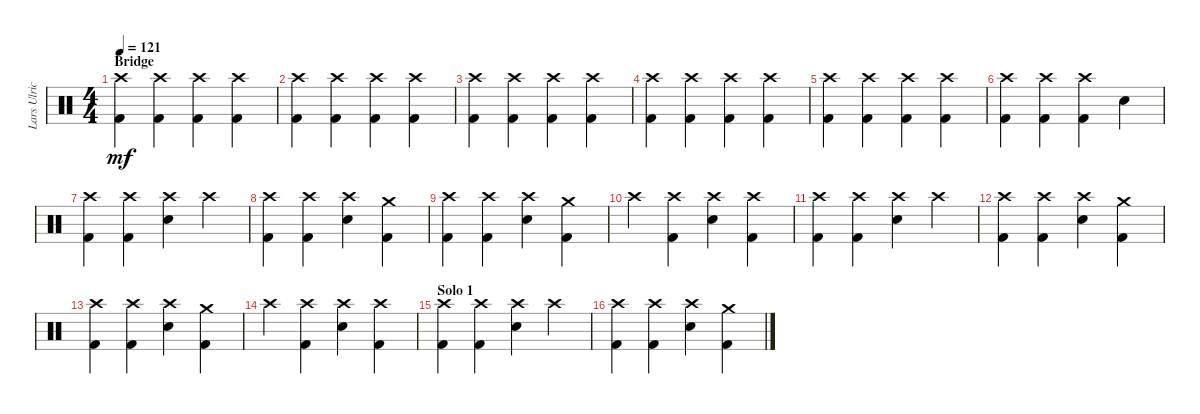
\track ("Lars Ulrich" "Lars Ulric") {instrument percussion}
\staff {score}
\articulation defaults
\ts (4 4)
\section ("" "Bridge")
\tempo 121
\clef neutral
\ks c
("Crash high (hit)" "Kick (hit) 2").4{dy mf} ("Crash high (hit)" "Kick (hit) 2").4 ("Crash high (hit)" "Kick (hit) 2").4 ("Crash high (hit)" "Kick (hit) 2").4 |
("Crash high (hit)" "Kick (hit) 2").4 ("Crash high (hit)" "Kick (hit) 2").4 ("Crash high (hit)" "Kick (hit) 2").4 ("Crash high (hit)" "Kick (hit) 2").4 |
("Crash high (hit)" "Kick (hit) 2").4 ("Crash high (hit)" "Kick (hit) 2").4 ("Crash high (hit)" "Kick (hit) 2").4 ("Crash high (hit)" "Kick (hit) 2").4 |
("Crash high (hit)" "Kick (hit) 2").4 ("Crash high (hit)" "Kick (hit) 2").4 ("Crash high (hit)" "Kick (hit) 2").4 ("Crash high (hit)" "Kick (hit) 2").4 |
("Crash high (hit)" "Kick (hit) 2").4 ("Crash high (hit)" "Kick (hit) 2").4 ("Crash high (hit)" "Kick (hit) 2").4 ("Crash high (hit)" "Kick (hit) 2").4 |
("Crash high (hit)" "Kick (hit) 2").4 ("Crash high (hit)" "Kick (hit) 2").4 ("Crash high (hit)" "Kick (hit) 2").4 "Snare (hit) 2".4 |
("Crash high (hit)" "Kick (hit) 2").4 ("Crash high (hit)" "Kick (hit) 2").4 ("Crash high (hit)" "Snare (hit) 2").4 "Crash high (hit)".4 |
("Crash high (hit)" "Kick (hit) 2").4 ("Crash high (hit)" "Kick (hit) 2").4 ("Crash high (hit)" "Snare (hit) 2").4 ("Kick (hit) 2" "Crash medium (hit)").4 |
("Crash high (hit)" "Kick (hit) 2").4 ("Crash high (hit)" "Kick (hit) 2").4 ("Crash high (hit)" "Snare (hit) 2").4 ("Kick (hit) 2" "Crash medium (hit)").4 |
"Crash high (hit)".4 ("Crash high (hit)" "Kick (hit) 2").4 ("Crash high (hit)" "Snare (hit) 2").4 ("Crash high (hit)" "Kick (hit) 2").4 |
("Crash high (hit)" "Kick (hit) 2").4 ("Crash high (hit)" "Kick (hit) 2").4 ("Crash high (hit)" "Snare (hit) 2").4 "Crash high (hit)".4 |
("Crash high (hit)" "Kick (hit) 2").4 ("Crash high (hit)" "Kick (hit) 2").4 ("Crash high (hit)" "Snare (hit) 2").4 ("Kick (hit) 2" "Crash medium (hit)").4 |
("Crash high (hit)" "Kick (hit) 2").4 ("Crash high (hit)" "Kick (hit) 2").4 ("Crash high (hit)" "Snare (hit) 2").4 ("Kick (hit) 2" "Crash medium (hit)").4 |
"Crash high (hit)".4 ("Crash high (hit)" "Kick (hit) 2").4 ("Crash high (hit)" "Snare (hit) 2").4 ("Crash high (hit)" "Kick (hit) 2").4 |
\section ("" "Solo 1")
("Crash high (hit)" "Kick (hit) 2").4 ("Crash high (hit)" "Kick (hit) 2").4 ("Crash high (hit)" "Snare (hit) 2").4 "Crash high (hit)".4 |
("Crash high (hit)" "Kick (hit) 2").4 ("Crash high (hit)" "Kick (hit) 2").4 ("Crash high (hit)" "Snare (hit) 2").4 ("Kick (hit) 2" "Crash medium (hit)").4
